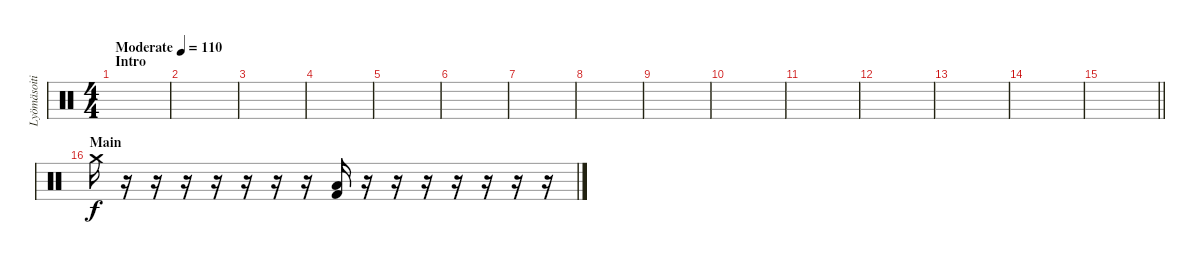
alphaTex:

\track ("Lyömäsoitin" "Lyömäsoiti") {instrument percussion}
\staff {score}
\articulation defaults
\ts (4 4)
\section ("" "Intro")
\tempo (110 "Moderate")
\clef neutral
\ks c
|
|
|
|
|
|
|
|
|
|
|
|
|
|
\barLineRight lightlight
|
\section ("" "Main")
"Crash medium (hit)".16 r.16 r.16 r.16 r.16 r.16 r.16 r.16 ("Low Tom (hit)" "Kick (hit) 2").16 r.16 r.16 r.16 r.16 r.16 r.16 r.16
